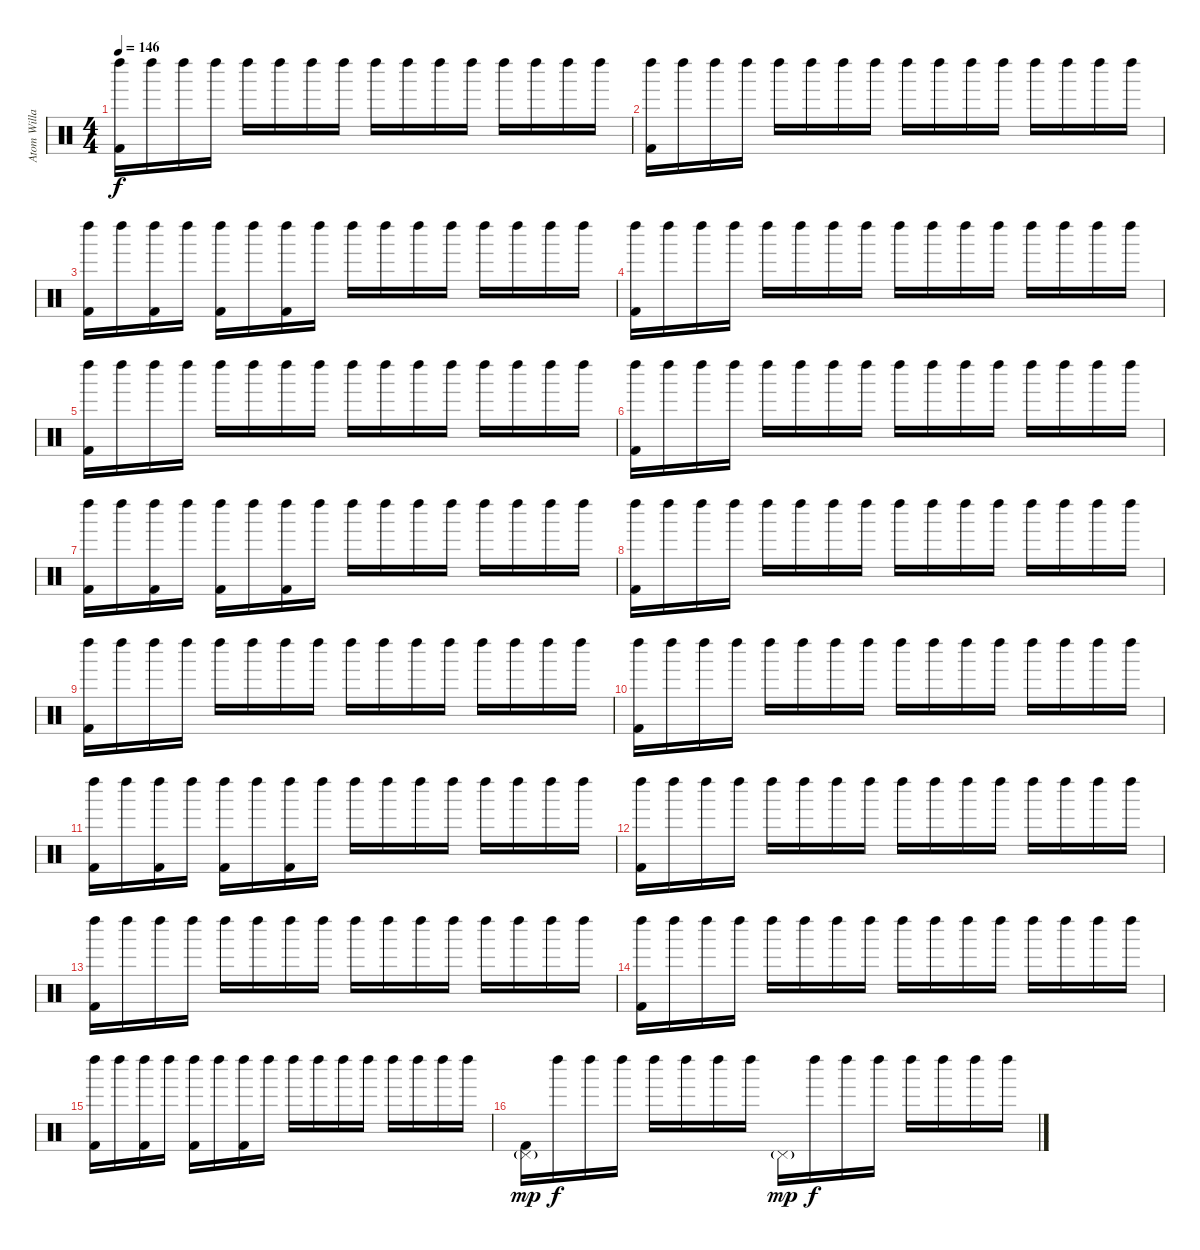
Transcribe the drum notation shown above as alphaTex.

\track ("Atom Willard" "Atom Willa") {instrument percussion}
\staff {score}
\articulation defaults
\ts (4 4)
\tempo 146
\clef neutral
\ks c
("Left Maraca (hit)" "Kick (hit) 2").16{dy f} "Left Maraca (hit)".16 "Left Maraca (hit)".16 "Left Maraca (hit)".16 "Left Maraca (hit)".16 "Left Maraca (hit)".16 "Left Maraca (hit)".16 "Left Maraca (hit)".16 "Left Maraca (hit)".16 "Left Maraca (hit)".16 "Left Maraca (hit)".16 "Left Maraca (hit)".16 "Left Maraca (hit)".16 "Left Maraca (hit)".16 "Left Maraca (hit)".16 "Left Maraca (hit)".16 |
("Left Maraca (hit)" "Kick (hit) 2").16 "Left Maraca (hit)".16 "Left Maraca (hit)".16 "Left Maraca (hit)".16 "Left Maraca (hit)".16 "Left Maraca (hit)".16 "Left Maraca (hit)".16 "Left Maraca (hit)".16 "Left Maraca (hit)".16 "Left Maraca (hit)".16 "Left Maraca (hit)".16 "Left Maraca (hit)".16 "Left Maraca (hit)".16 "Left Maraca (hit)".16 "Left Maraca (hit)".16 "Left Maraca (hit)".16 |
("Left Maraca (hit)" "Kick (hit) 2").16 "Left Maraca (hit)".16 ("Left Maraca (hit)" "Kick (hit) 2").16 "Left Maraca (hit)".16 ("Left Maraca (hit)" "Kick (hit) 2").16 "Left Maraca (hit)".16 ("Left Maraca (hit)" "Kick (hit) 2").16 "Left Maraca (hit)".16 "Left Maraca (hit)".16 "Left Maraca (hit)".16 "Left Maraca (hit)".16 "Left Maraca (hit)".16 "Left Maraca (hit)".16 "Left Maraca (hit)".16 "Left Maraca (hit)".16 "Left Maraca (hit)".16 |
("Left Maraca (hit)" "Kick (hit) 2").16 "Left Maraca (hit)".16 "Left Maraca (hit)".16 "Left Maraca (hit)".16 "Left Maraca (hit)".16 "Left Maraca (hit)".16 "Left Maraca (hit)".16 "Left Maraca (hit)".16 "Left Maraca (hit)".16 "Left Maraca (hit)".16 "Left Maraca (hit)".16 "Left Maraca (hit)".16 "Left Maraca (hit)".16 "Left Maraca (hit)".16 "Left Maraca (hit)".16 "Left Maraca (hit)".16 |
("Left Maraca (hit)" "Kick (hit) 2").16 "Left Maraca (hit)".16 "Left Maraca (hit)".16 "Left Maraca (hit)".16 "Left Maraca (hit)".16 "Left Maraca (hit)".16 "Left Maraca (hit)".16 "Left Maraca (hit)".16 "Left Maraca (hit)".16 "Left Maraca (hit)".16 "Left Maraca (hit)".16 "Left Maraca (hit)".16 "Left Maraca (hit)".16 "Left Maraca (hit)".16 "Left Maraca (hit)".16 "Left Maraca (hit)".16 |
("Left Maraca (hit)" "Kick (hit) 2").16 "Left Maraca (hit)".16 "Left Maraca (hit)".16 "Left Maraca (hit)".16 "Left Maraca (hit)".16 "Left Maraca (hit)".16 "Left Maraca (hit)".16 "Left Maraca (hit)".16 "Left Maraca (hit)".16 "Left Maraca (hit)".16 "Left Maraca (hit)".16 "Left Maraca (hit)".16 "Left Maraca (hit)".16 "Left Maraca (hit)".16 "Left Maraca (hit)".16 "Left Maraca (hit)".16 |
("Left Maraca (hit)" "Kick (hit) 2").16 "Left Maraca (hit)".16 ("Left Maraca (hit)" "Kick (hit) 2").16 "Left Maraca (hit)".16 ("Left Maraca (hit)" "Kick (hit) 2").16 "Left Maraca (hit)".16 ("Left Maraca (hit)" "Kick (hit) 2").16 "Left Maraca (hit)".16 "Left Maraca (hit)".16 "Left Maraca (hit)".16 "Left Maraca (hit)".16 "Left Maraca (hit)".16 "Left Maraca (hit)".16 "Left Maraca (hit)".16 "Left Maraca (hit)".16 "Left Maraca (hit)".16 |
("Left Maraca (hit)" "Kick (hit) 2").16 "Left Maraca (hit)".16 "Left Maraca (hit)".16 "Left Maraca (hit)".16 "Left Maraca (hit)".16 "Left Maraca (hit)".16 "Left Maraca (hit)".16 "Left Maraca (hit)".16 "Left Maraca (hit)".16 "Left Maraca (hit)".16 "Left Maraca (hit)".16 "Left Maraca (hit)".16 "Left Maraca (hit)".16 "Left Maraca (hit)".16 "Left Maraca (hit)".16 "Left Maraca (hit)".16 |
("Left Maraca (hit)" "Kick (hit) 2").16 "Left Maraca (hit)".16 "Left Maraca (hit)".16 "Left Maraca (hit)".16 "Left Maraca (hit)".16 "Left Maraca (hit)".16 "Left Maraca (hit)".16 "Left Maraca (hit)".16 "Left Maraca (hit)".16 "Left Maraca (hit)".16 "Left Maraca (hit)".16 "Left Maraca (hit)".16 "Left Maraca (hit)".16 "Left Maraca (hit)".16 "Left Maraca (hit)".16 "Left Maraca (hit)".16 |
("Left Maraca (hit)" "Kick (hit) 2").16 "Left Maraca (hit)".16 "Left Maraca (hit)".16 "Left Maraca (hit)".16 "Left Maraca (hit)".16 "Left Maraca (hit)".16 "Left Maraca (hit)".16 "Left Maraca (hit)".16 "Left Maraca (hit)".16 "Left Maraca (hit)".16 "Left Maraca (hit)".16 "Left Maraca (hit)".16 "Left Maraca (hit)".16 "Left Maraca (hit)".16 "Left Maraca (hit)".16 "Left Maraca (hit)".16 |
("Left Maraca (hit)" "Kick (hit) 2").16 "Left Maraca (hit)".16 ("Left Maraca (hit)" "Kick (hit) 2").16 "Left Maraca (hit)".16 ("Left Maraca (hit)" "Kick (hit) 2").16 "Left Maraca (hit)".16 ("Left Maraca (hit)" "Kick (hit) 2").16 "Left Maraca (hit)".16 "Left Maraca (hit)".16 "Left Maraca (hit)".16 "Left Maraca (hit)".16 "Left Maraca (hit)".16 "Left Maraca (hit)".16 "Left Maraca (hit)".16 "Left Maraca (hit)".16 "Left Maraca (hit)".16 |
("Left Maraca (hit)" "Kick (hit) 2").16 "Left Maraca (hit)".16 "Left Maraca (hit)".16 "Left Maraca (hit)".16 "Left Maraca (hit)".16 "Left Maraca (hit)".16 "Left Maraca (hit)".16 "Left Maraca (hit)".16 "Left Maraca (hit)".16 "Left Maraca (hit)".16 "Left Maraca (hit)".16 "Left Maraca (hit)".16 "Left Maraca (hit)".16 "Left Maraca (hit)".16 "Left Maraca (hit)".16 "Left Maraca (hit)".16 |
("Left Maraca (hit)" "Kick (hit) 2").16 "Left Maraca (hit)".16 "Left Maraca (hit)".16 "Left Maraca (hit)".16 "Left Maraca (hit)".16 "Left Maraca (hit)".16 "Left Maraca (hit)".16 "Left Maraca (hit)".16 "Left Maraca (hit)".16 "Left Maraca (hit)".16 "Left Maraca (hit)".16 "Left Maraca (hit)".16 "Left Maraca (hit)".16 "Left Maraca (hit)".16 "Left Maraca (hit)".16 "Left Maraca (hit)".16 |
("Left Maraca (hit)" "Kick (hit) 2").16 "Left Maraca (hit)".16 "Left Maraca (hit)".16 "Left Maraca (hit)".16 "Left Maraca (hit)".16 "Left Maraca (hit)".16 "Left Maraca (hit)".16 "Left Maraca (hit)".16 "Left Maraca (hit)".16 "Left Maraca (hit)".16 "Left Maraca (hit)".16 "Left Maraca (hit)".16 "Left Maraca (hit)".16 "Left Maraca (hit)".16 "Left Maraca (hit)".16 "Left Maraca (hit)".16 |
("Left Maraca (hit)" "Kick (hit) 2").16 "Left Maraca (hit)".16 ("Left Maraca (hit)" "Kick (hit) 2").16 "Left Maraca (hit)".16 ("Left Maraca (hit)" "Kick (hit) 2").16 "Left Maraca (hit)".16 ("Left Maraca (hit)" "Kick (hit) 2").16 "Left Maraca (hit)".16 "Left Maraca (hit)".16 "Left Maraca (hit)".16 "Left Maraca (hit)".16 "Left Maraca (hit)".16 "Left Maraca (hit)".16 "Left Maraca (hit)".16 "Left Maraca (hit)".16 "Left Maraca (hit)".16 |
("Pedal Hi-Hat (hit)"{g} "Kick (hit) 2").16{dy mp} "Left Maraca (hit)".16{dy f} "Left Maraca (hit)".16 "Left Maraca (hit)".16 "Left Maraca (hit)".16 "Left Maraca (hit)".16 "Left Maraca (hit)".16 "Left Maraca (hit)".16 "Pedal Hi-Hat (hit)"{g}.16{dy mp} "Left Maraca (hit)".16{dy f} "Left Maraca (hit)".16 "Left Maraca (hit)".16 "Left Maraca (hit)".16 "Left Maraca (hit)".16 "Left Maraca (hit)".16 "Left Maraca (hit)".16
